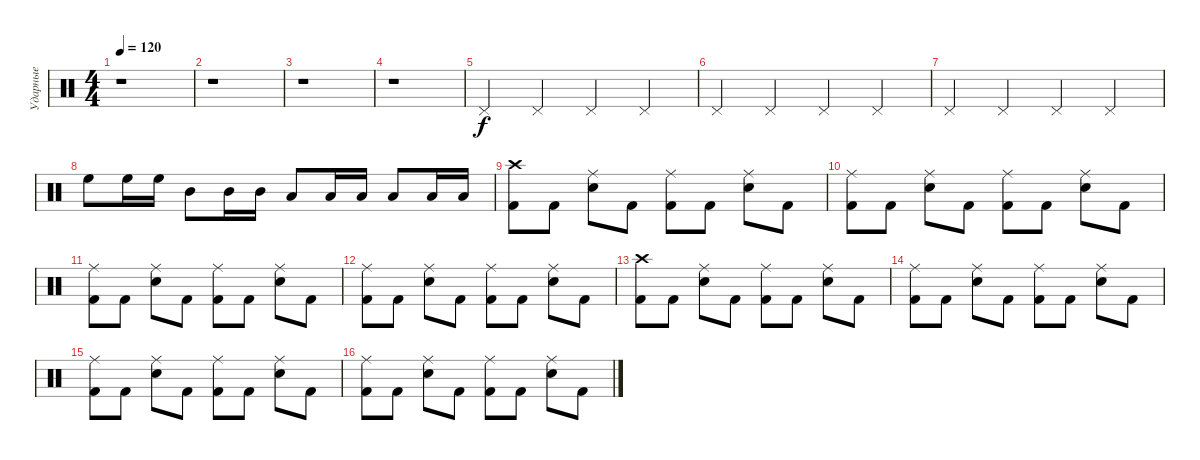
\track ("Ударные" "Ударные") {instrument percussion}
\staff {score}
\articulation defaults
\ts (4 4)
\tempo 120
\clef neutral
\ks c
r.1{dy f} |
r.1 |
r.1 |
r.1 |
"Pedal Hi-Hat (hit)".4 "Pedal Hi-Hat (hit)".4 "Pedal Hi-Hat (hit)".4 "Pedal Hi-Hat (hit)".4 |
"Pedal Hi-Hat (hit)".4 "Pedal Hi-Hat (hit)".4 "Pedal Hi-Hat (hit)".4 "Pedal Hi-Hat (hit)".4 |
"Pedal Hi-Hat (hit)".4 "Pedal Hi-Hat (hit)".4 "Pedal Hi-Hat (hit)".4 "Pedal Hi-Hat (hit)".4 |
"High Floor Tom (hit)".8 "High Floor Tom (hit)".16 "High Floor Tom (hit)".16 "Mid Tom (hit)".8 "Mid Tom (hit)".16 "Mid Tom (hit)".16 "Low Tom (hit)".8 "Low Tom (hit)".16 "Low Tom (hit)".16 "Low Floor Tom (hit)".8 "Low Floor Tom (hit)".16 "Low Floor Tom (hit)".16 |
("Crash high (hit)" "Kick (hit) 2").8 "Kick (hit) 2".8 ("Ride (middle)" "Snare (hit) 2").8 "Kick (hit) 2".8 ("Ride (middle)" "Kick (hit) 2").8 "Kick (hit) 2".8 ("Ride (middle)" "Snare (hit) 2").8 "Kick (hit) 2".8 |
("Ride (middle)" "Kick (hit) 2").8 "Kick (hit) 2".8 ("Ride (middle)" "Snare (hit) 2").8 "Kick (hit) 2".8 ("Ride (middle)" "Kick (hit) 2").8 "Kick (hit) 2".8 ("Ride (middle)" "Snare (hit) 2").8 "Kick (hit) 2".8 |
("Ride (middle)" "Kick (hit) 2").8 "Kick (hit) 2".8 ("Ride (middle)" "Snare (hit) 2").8 "Kick (hit) 2".8 ("Ride (middle)" "Kick (hit) 2").8 "Kick (hit) 2".8 ("Ride (middle)" "Snare (hit) 2").8 "Kick (hit) 2".8 |
("Ride (middle)" "Kick (hit) 2").8 "Kick (hit) 2".8 ("Ride (middle)" "Snare (hit) 2").8 "Kick (hit) 2".8 ("Ride (middle)" "Kick (hit) 2").8 "Kick (hit) 2".8 ("Ride (middle)" "Snare (hit) 2").8 "Kick (hit) 2".8 |
("Crash high (hit)" "Kick (hit) 2").8 "Kick (hit) 2".8 ("Ride (middle)" "Snare (hit) 2").8 "Kick (hit) 2".8 ("Ride (middle)" "Kick (hit) 2").8 "Kick (hit) 2".8 ("Ride (middle)" "Snare (hit) 2").8 "Kick (hit) 2".8 |
("Ride (middle)" "Kick (hit) 2").8 "Kick (hit) 2".8 ("Ride (middle)" "Snare (hit) 2").8 "Kick (hit) 2".8 ("Ride (middle)" "Kick (hit) 2").8 "Kick (hit) 2".8 ("Ride (middle)" "Snare (hit) 2").8 "Kick (hit) 2".8 |
("Ride (middle)" "Kick (hit) 2").8 "Kick (hit) 2".8 ("Ride (middle)" "Snare (hit) 2").8 "Kick (hit) 2".8 ("Ride (middle)" "Kick (hit) 2").8 "Kick (hit) 2".8 ("Ride (middle)" "Snare (hit) 2").8 "Kick (hit) 2".8 |
("Ride (middle)" "Kick (hit) 2").8 "Kick (hit) 2".8 ("Ride (middle)" "Snare (hit) 2").8 "Kick (hit) 2".8 ("Ride (middle)" "Kick (hit) 2").8 "Kick (hit) 2".8 ("Ride (middle)" "Snare (hit) 2").8 "Kick (hit) 2".8
